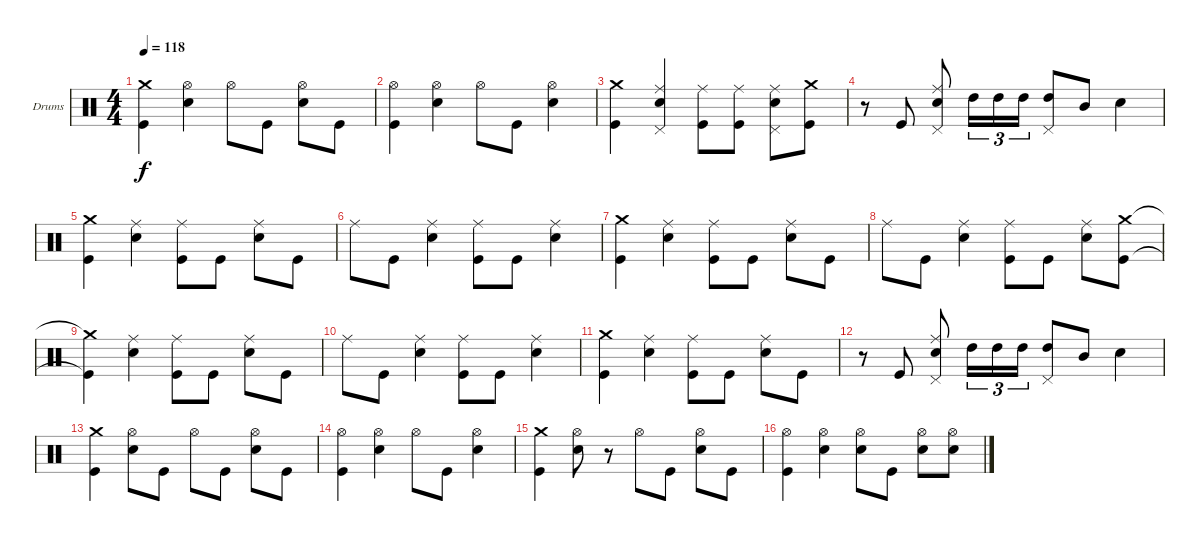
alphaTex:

\bracketExtendMode groupsimilarinstruments
\firstSystemTrackNameOrientation horizontal
\otherSystemsTrackNameOrientation horizontal
\track ("Drumkit" "Drums") {instrument percussion}
\staff {score}
\articulation defaults
\ts (4 4)
\tempo 118
\clef neutral
\ks c
("Crash medium (hit)" "Kick (hit)").4{dy f} ("Hi-Hat (open)" "Snare (hit) 2").4 "Hi-Hat (open)".8 "Kick (hit)".8 ("Hi-Hat (open)" "Snare (hit) 2").8 "Kick (hit)".8 |
("Hi-Hat (open)" "Kick (hit)").4 ("Hi-Hat (open)" "Snare (hit) 2").4 "Hi-Hat (open)".8 "Kick (hit)".8 ("Hi-Hat (open)" "Snare (hit) 2").4 |
("Crash medium (hit)" "Kick (hit)").4 ("Ride (middle)" "Snare (hit) 2" "Pedal Hi-Hat (hit)").4 ("Ride (middle)" "Kick (hit)").8 ("Ride (middle)" "Kick (hit)").8 ("Ride (middle)" "Snare (hit) 2" "Pedal Hi-Hat (hit)").8 ("Crash medium (hit)" "Kick (hit)").8 |
r.8 "Kick (hit)".8 ("Ride (middle)" "Snare (hit) 2" "Pedal Hi-Hat (hit)").8 "High Tom (hit)".16{tu (3 2)} "High Tom (hit)".16{tu (3 2)} "High Tom (hit)".16{tu (3 2)} ("High Tom (hit)" "Pedal Hi-Hat (hit)").8 "Mid Tom (hit)".8 "Snare (hit) 2".4 |
("Crash medium (hit)" "Kick (hit)").4 ("Ride (middle)" "Snare (hit) 2").4 ("Ride (middle)" "Kick (hit)").8 "Kick (hit)".8 ("Ride (middle)" "Snare (hit) 2").8 "Kick (hit)".8 |
"Ride (middle)".8 "Kick (hit)".8 ("Ride (middle)" "Snare (hit) 2").4 ("Ride (middle)" "Kick (hit)").8 "Kick (hit)".8 ("Ride (middle)" "Snare (hit) 2").4 |
("Crash medium (hit)" "Kick (hit)").4 ("Ride (middle)" "Snare (hit) 2").4 ("Ride (middle)" "Kick (hit)").8 "Kick (hit)".8 ("Ride (middle)" "Snare (hit) 2").8 "Kick (hit)".8 |
"Ride (middle)".8 "Kick (hit)".8 ("Ride (middle)" "Snare (hit) 2").4 ("Ride (middle)" "Kick (hit)").8 "Kick (hit)".8 ("Ride (middle)" "Snare (hit) 2").8 ("Crash medium (hit)" "Kick (hit)").8 |
("Crash medium (hit)"{t} "Kick (hit)"{t}).4 ("Ride (middle)" "Snare (hit) 2").4 ("Ride (middle)" "Kick (hit)").8 "Kick (hit)".8 ("Ride (middle)" "Snare (hit) 2").8 "Kick (hit)".8 |
"Ride (middle)".8 "Kick (hit)".8 ("Ride (middle)" "Snare (hit) 2").4 ("Ride (middle)" "Kick (hit)").8 "Kick (hit)".8 ("Ride (middle)" "Snare (hit) 2").4 |
("Crash medium (hit)" "Kick (hit)").4 ("Ride (middle)" "Snare (hit) 2").4 ("Ride (middle)" "Kick (hit)").8 "Kick (hit)".8 ("Ride (middle)" "Snare (hit) 2").8 "Kick (hit)".8 |
r.8 "Kick (hit)".8 ("Ride (middle)" "Snare (hit) 2" "Pedal Hi-Hat (hit)").8 "High Tom (hit)".16{tu (3 2)} "High Tom (hit)".16{tu (3 2)} "High Tom (hit)".16{tu (3 2)} ("High Tom (hit)" "Pedal Hi-Hat (hit)").8 "Mid Tom (hit)".8 "Snare (hit) 2".4 |
("Crash medium (hit)" "Kick (hit)").4 ("Hi-Hat (open)" "Snare (hit) 2").8 "Kick (hit)".8 "Hi-Hat (open)".8 "Kick (hit)".8 ("Hi-Hat (open)" "Snare (hit) 2").8 "Kick (hit)".8 |
("Hi-Hat (open)" "Kick (hit)").4 ("Hi-Hat (open)" "Snare (hit) 2").4 "Hi-Hat (open)".8 "Kick (hit)".8 ("Hi-Hat (open)" "Snare (hit) 2").4 |
("Crash medium (hit)" "Kick (hit)").4 ("Hi-Hat (open)" "Snare (hit) 2").8 r.8 "Hi-Hat (open)".8 "Kick (hit)".8 ("Hi-Hat (open)" "Snare (hit) 2").8 "Kick (hit)".8 |
("Hi-Hat (open)" "Kick (hit)").4 ("Hi-Hat (open)" "Snare (hit) 2").4 ("Hi-Hat (open)" "Snare (hit) 2").8 "Kick (hit)".8 ("Hi-Hat (open)" "Snare (hit) 2").8 ("Hi-Hat (open)" "Snare (hit) 2").8
